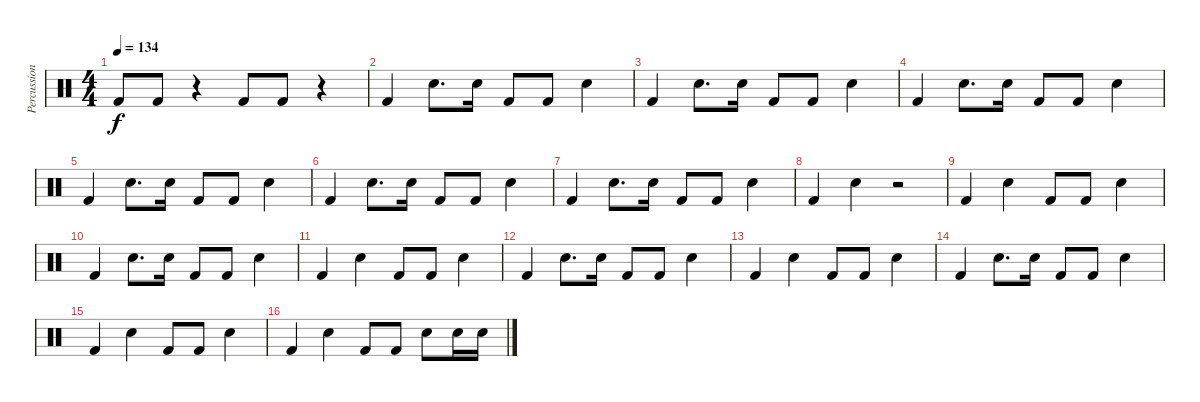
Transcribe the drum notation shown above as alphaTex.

\track ("Percussion" "Percussion") {instrument percussion}
\staff {score}
\articulation defaults
\ts (4 4)
\tempo 134
\clef neutral
\ks c "Kick (hit) 2".8{dy f} "Kick (hit) 2".8
r.4 "Kick (hit) 2".8 "Kick (hit) 2".8 r.4 |
"Kick (hit) 2".4 "Electric Snare (hit)".8{d} "Electric Snare (hit)".16 "Kick (hit) 2".8 "Kick (hit) 2".8 "Electric Snare (hit)".4 |
"Kick (hit) 2".4 "Electric Snare (hit)".8{d} "Electric Snare (hit)".16 "Kick (hit) 2".8 "Kick (hit) 2".8 "Electric Snare (hit)".4 |
"Kick (hit) 2".4 "Electric Snare (hit)".8{d} "Electric Snare (hit)".16 "Kick (hit) 2".8 "Kick (hit) 2".8 "Electric Snare (hit)".4 |
"Kick (hit) 2".4 "Electric Snare (hit)".8{d} "Electric Snare (hit)".16 "Kick (hit) 2".8 "Kick (hit) 2".8 "Electric Snare (hit)".4 |
"Kick (hit) 2".4 "Electric Snare (hit)".8{d} "Electric Snare (hit)".16 "Kick (hit) 2".8 "Kick (hit) 2".8 "Electric Snare (hit)".4 |
"Kick (hit) 2".4 "Electric Snare (hit)".8{d} "Electric Snare (hit)".16 "Kick (hit) 2".8 "Kick (hit) 2".8 "Electric Snare (hit)".4 |
"Kick (hit) 2".4 "Electric Snare (hit)".4 r.2 |
"Kick (hit) 2".4 "Electric Snare (hit)".4 "Kick (hit) 2".8 "Kick (hit) 2".8 "Electric Snare (hit)".4 |
"Kick (hit) 2".4 "Electric Snare (hit)".8{d} "Electric Snare (hit)".16 "Kick (hit) 2".8 "Kick (hit) 2".8 "Electric Snare (hit)".4 |
"Kick (hit) 2".4 "Electric Snare (hit)".4 "Kick (hit) 2".8 "Kick (hit) 2".8 "Electric Snare (hit)".4 |
"Kick (hit) 2".4 "Electric Snare (hit)".8{d} "Electric Snare (hit)".16 "Kick (hit) 2".8 "Kick (hit) 2".8 "Electric Snare (hit)".4 |
"Kick (hit) 2".4 "Electric Snare (hit)".4 "Kick (hit) 2".8 "Kick (hit) 2".8 "Electric Snare (hit)".4 |
"Kick (hit) 2".4 "Electric Snare (hit)".8{d} "Electric Snare (hit)".16 "Kick (hit) 2".8 "Kick (hit) 2".8 "Electric Snare (hit)".4 |
"Kick (hit) 2".4 "Electric Snare (hit)".4 "Kick (hit) 2".8 "Kick (hit) 2".8 "Electric Snare (hit)".4 |
"Kick (hit) 2".4 "Electric Snare (hit)".4 "Kick (hit) 2".8 "Kick (hit) 2".8 "Electric Snare (hit)".8 "Electric Snare (hit)".16 "Electric Snare (hit)".16
